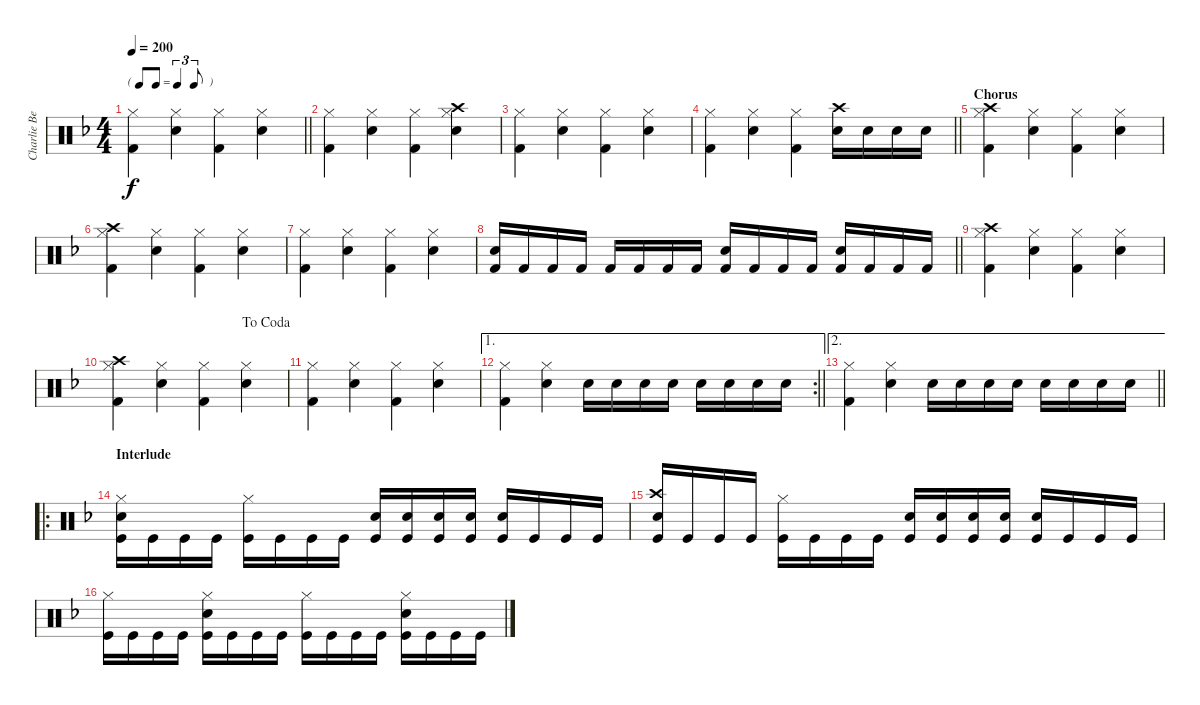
\track ("Charlie Benante" "Charlie Be") {instrument percussion}
\staff {score}
\articulation defaults
\ts (4 4)
\tf triplet8th
\tempo 200
\clef neutral
\barLineRight lightlight
\ks f
("Hi-Hat (closed)" "Kick (hit) 2").4{dy f} ("Hi-Hat (closed)" "Electric Snare (hit)").4 ("Hi-Hat (closed)" "Kick (hit) 2").4 ("Hi-Hat (closed)" "Electric Snare (hit)").4 |
("Hi-Hat (closed)" "Kick (hit) 2").4 ("Hi-Hat (closed)" "Electric Snare (hit)").4 ("Hi-Hat (closed)" "Kick (hit) 2").4 ("Crash high (hit)" "Hi-Hat (closed)" "Electric Snare (hit)").4 |
("Hi-Hat (closed)" "Kick (hit) 2").4 ("Hi-Hat (closed)" "Electric Snare (hit)").4 ("Hi-Hat (closed)" "Kick (hit) 2").4 ("Hi-Hat (closed)" "Electric Snare (hit)").4 |
\barLineRight lightlight
("Hi-Hat (closed)" "Kick (hit) 2").4 ("Hi-Hat (closed)" "Electric Snare (hit)").4 ("Hi-Hat (closed)" "Kick (hit) 2").4 ("Crash high (hit)" "Electric Snare (hit)").16 "Electric Snare (hit)".16 "Electric Snare (hit)".16 "Electric Snare (hit)".16 |
\section ("" "Chorus")
("Crash high (hit)" "Hi-Hat (closed)" "Kick (hit) 2").4 ("Hi-Hat (closed)" "Electric Snare (hit)").4 ("Hi-Hat (closed)" "Kick (hit) 2").4 ("Hi-Hat (closed)" "Electric Snare (hit)").4 |
("Crash high (hit)" "Hi-Hat (closed)" "Kick (hit) 2").4 ("Hi-Hat (closed)" "Electric Snare (hit)").4 ("Hi-Hat (closed)" "Kick (hit) 2").4 ("Hi-Hat (closed)" "Electric Snare (hit)").4 |
("Hi-Hat (closed)" "Kick (hit) 2").4 ("Hi-Hat (closed)" "Electric Snare (hit)").4 ("Hi-Hat (closed)" "Kick (hit) 2").4 ("Hi-Hat (closed)" "Electric Snare (hit)").4 |
\barLineRight lightlight
("Electric Snare (hit)" "Kick (hit) 2").16 "Kick (hit) 2".16 "Kick (hit) 2".16 "Kick (hit) 2".16 "Kick (hit) 2".16 "Kick (hit) 2".16 "Kick (hit) 2".16 "Kick (hit) 2".16 ("Electric Snare (hit)" "Kick (hit) 2").16 "Kick (hit) 2".16 "Kick (hit) 2".16 "Kick (hit) 2".16 ("Electric Snare (hit)" "Kick (hit) 2").16 "Kick (hit) 2".16 "Kick (hit) 2".16 "Kick (hit) 2".16 |
("Crash high (hit)" "Hi-Hat (closed)" "Kick (hit) 2").4 ("Hi-Hat (closed)" "Electric Snare (hit)").4 ("Hi-Hat (closed)" "Kick (hit) 2").4 ("Hi-Hat (closed)" "Electric Snare (hit)").4 |
\jump dacoda
("Crash high (hit)" "Hi-Hat (closed)" "Kick (hit) 2").4 ("Hi-Hat (closed)" "Electric Snare (hit)").4 ("Hi-Hat (closed)" "Kick (hit) 2").4 ("Hi-Hat (closed)" "Electric Snare (hit)").4 |
("Hi-Hat (closed)" "Kick (hit) 2").4 ("Hi-Hat (closed)" "Electric Snare (hit)").4 ("Hi-Hat (closed)" "Kick (hit) 2").4 ("Hi-Hat (closed)" "Electric Snare (hit)").4 |
\ae 1
\rc 2
\barLineRight lightlight
("Hi-Hat (closed)" "Kick (hit) 2").4 ("Hi-Hat (closed)" "Electric Snare (hit)").4 "Electric Snare (hit)".16 "Electric Snare (hit)".16 "Electric Snare (hit)".16 "Electric Snare (hit)".16 "Electric Snare (hit)".16 "Electric Snare (hit)".16 "Electric Snare (hit)".16 "Electric Snare (hit)".16 |
\ae 2
\barLineRight lightlight
("Hi-Hat (closed)" "Kick (hit) 2").4 ("Hi-Hat (closed)" "Electric Snare (hit)").4 "Electric Snare (hit)".16 "Electric Snare (hit)".16 "Electric Snare (hit)".16 "Electric Snare (hit)".16 "Electric Snare (hit)".16 "Electric Snare (hit)".16 "Electric Snare (hit)".16 "Electric Snare (hit)".16 |
\ro
\section ("" "Interlude")
("Hi-Hat (closed)" "Electric Snare (hit)" "Kick (hit)").16 "Kick (hit)".16 "Kick (hit)".16 "Kick (hit)".16 ("Hi-Hat (closed)" "Kick (hit)").16 "Kick (hit)".16 "Kick (hit)".16 "Kick (hit)".16 ("Electric Snare (hit)" "Kick (hit)").16 ("Electric Snare (hit)" "Kick (hit)").16 ("Electric Snare (hit)" "Kick (hit)").16 ("Electric Snare (hit)" "Kick (hit)").16 ("Electric Snare (hit)" "Kick (hit)").16 "Kick (hit)".16 "Kick (hit)".16 "Kick (hit)".16 |
("Crash high (hit)" "Electric Snare (hit)" "Kick (hit)").16 "Kick (hit)".16 "Kick (hit)".16 "Kick (hit)".16 ("Hi-Hat (closed)" "Kick (hit)").16 "Kick (hit)".16 "Kick (hit)".16 "Kick (hit)".16 ("Electric Snare (hit)" "Kick (hit)").16 ("Electric Snare (hit)" "Kick (hit)").16 ("Electric Snare (hit)" "Kick (hit)").16 ("Electric Snare (hit)" "Kick (hit)").16 ("Electric Snare (hit)" "Kick (hit)").16 "Kick (hit)".16 "Kick (hit)".16 "Kick (hit)".16 |
("Hi-Hat (closed)" "Kick (hit)").16 "Kick (hit)".16 "Kick (hit)".16 "Kick (hit)".16 ("Hi-Hat (closed)" "Electric Snare (hit)" "Kick (hit)").16 "Kick (hit)".16 "Kick (hit)".16 "Kick (hit)".16 ("Hi-Hat (closed)" "Kick (hit)").16 "Kick (hit)".16 "Kick (hit)".16 "Kick (hit)".16 ("Hi-Hat (closed)" "Electric Snare (hit)" "Kick (hit)").16 "Kick (hit)".16 "Kick (hit)".16 "Kick (hit)".16
